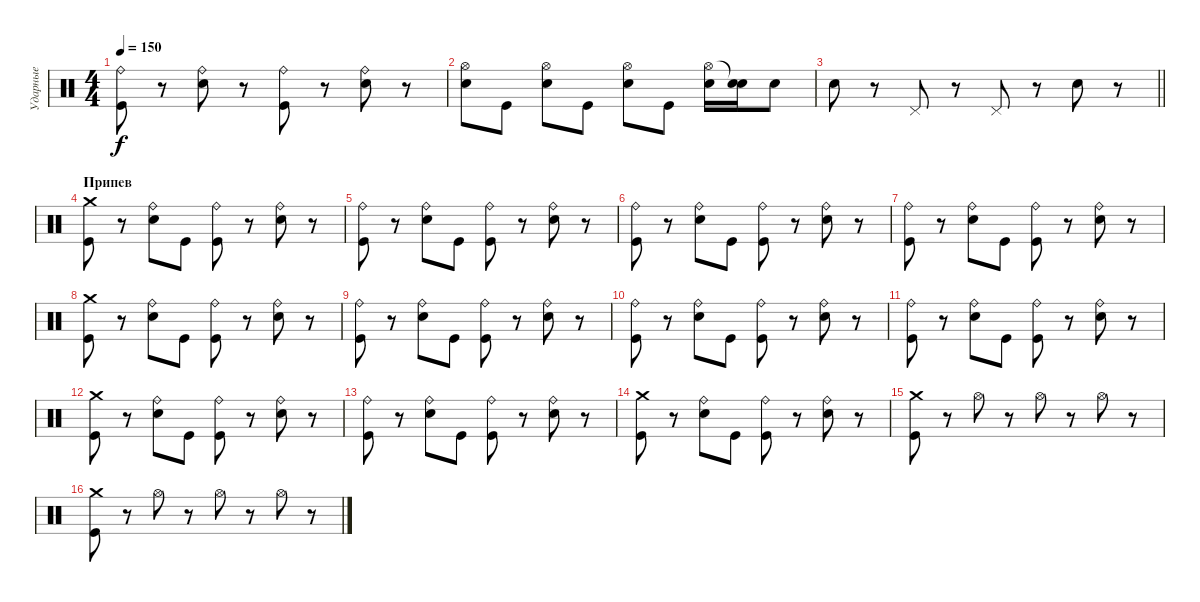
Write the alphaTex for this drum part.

\track ("Ударные" "Ударные") {instrument percussion}
\staff {score}
\articulation defaults
\ts (4 4)
\tempo 150
\clef neutral
\ks c
("Ride (bell)" "Kick (hit)").8{dy f} r.8 ("Ride (bell)" "Electric Snare (hit)").8 r.8 ("Ride (bell)" "Kick (hit)").8 r.8 ("Ride (bell)" "Electric Snare (hit)").8 r.8 |
("Hi-Hat (open)" "Electric Snare (hit)").8 "Kick (hit)".8 ("Hi-Hat (open)" "Electric Snare (hit)").8 "Kick (hit)".8 ("Hi-Hat (open)" "Electric Snare (hit)").8 "Kick (hit)".8 ("Hi-Hat (open)" "Electric Snare (hit)").16 ("Snare (hit)"{t} "Electric Snare (hit)").16 "Electric Snare (hit)".8 |
\barLineRight lightlight "Electric Snare (hit)".8
r.8 "Pedal Hi-Hat (hit)".8 r.8 "Pedal Hi-Hat (hit)".8 r.8 "Electric Snare (hit)".8 r.8 |
\section ("" "Припев")
("Crash medium (hit)" "Kick (hit)").8 r.8 ("Ride (bell)" "Electric Snare (hit)").8 "Kick (hit)".8 ("Ride (bell)" "Kick (hit)").8 r.8 ("Ride (bell)" "Electric Snare (hit)").8 r.8 |
("Ride (bell)" "Kick (hit)").8 r.8 ("Ride (bell)" "Electric Snare (hit)").8 "Kick (hit)".8 ("Ride (bell)" "Kick (hit)").8 r.8 ("Ride (bell)" "Electric Snare (hit)").8 r.8 |
("Ride (bell)" "Kick (hit)").8 r.8 ("Ride (bell)" "Electric Snare (hit)").8 "Kick (hit)".8 ("Ride (bell)" "Kick (hit)").8 r.8 ("Ride (bell)" "Electric Snare (hit)").8 r.8 |
("Ride (bell)" "Kick (hit)").8 r.8 ("Ride (bell)" "Electric Snare (hit)").8 "Kick (hit)".8 ("Ride (bell)" "Kick (hit)").8 r.8 ("Ride (bell)" "Electric Snare (hit)").8 r.8 |
("Crash medium (hit)" "Kick (hit)").8 r.8 ("Ride (bell)" "Electric Snare (hit)").8 "Kick (hit)".8 ("Ride (bell)" "Kick (hit)").8 r.8 ("Ride (bell)" "Electric Snare (hit)").8 r.8 |
("Ride (bell)" "Kick (hit)").8 r.8 ("Ride (bell)" "Electric Snare (hit)").8 "Kick (hit)".8 ("Ride (bell)" "Kick (hit)").8 r.8 ("Ride (bell)" "Electric Snare (hit)").8 r.8 |
("Ride (bell)" "Kick (hit)").8 r.8 ("Ride (bell)" "Electric Snare (hit)").8 "Kick (hit)".8 ("Ride (bell)" "Kick (hit)").8 r.8 ("Ride (bell)" "Electric Snare (hit)").8 r.8 |
("Ride (bell)" "Kick (hit)").8 r.8 ("Ride (bell)" "Electric Snare (hit)").8 "Kick (hit)".8 ("Ride (bell)" "Kick (hit)").8 r.8 ("Ride (bell)" "Electric Snare (hit)").8 r.8 |
("Crash medium (hit)" "Kick (hit)").8 r.8 ("Ride (bell)" "Electric Snare (hit)").8 "Kick (hit)".8 ("Ride (bell)" "Kick (hit)").8 r.8 ("Ride (bell)" "Electric Snare (hit)").8 r.8 |
("Ride (bell)" "Kick (hit)").8 r.8 ("Ride (bell)" "Electric Snare (hit)").8 "Kick (hit)".8 ("Ride (bell)" "Kick (hit)").8 r.8 ("Ride (bell)" "Electric Snare (hit)").8 r.8 |
("Crash medium (hit)" "Kick (hit)").8 r.8 ("Ride (bell)" "Electric Snare (hit)").8 "Kick (hit)".8 ("Ride (bell)" "Kick (hit)").8 r.8 ("Ride (bell)" "Electric Snare (hit)").8 r.8 |
("Crash medium (hit)" "Kick (hit)").8 r.8 "Hi-Hat (open)".8 r.8 "Hi-Hat (open)".8 r.8 "Hi-Hat (open)".8 r.8 |
("Crash medium (hit)" "Kick (hit)").8 r.8 "Hi-Hat (open)".8 r.8 "Hi-Hat (open)".8 r.8 "Hi-Hat (open)".8 r.8
